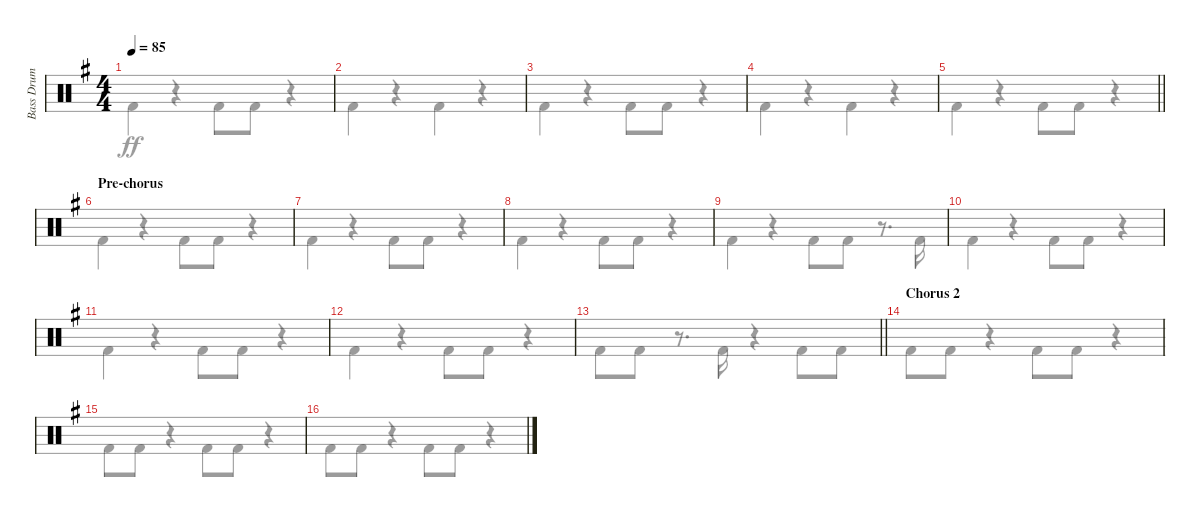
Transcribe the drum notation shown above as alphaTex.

\track ("Bass Drum" "Bass Drum") {instrument percussion}
\staff {score}
\articulation defaults
\voice
\ts (4 4)
\tempo 85
\clef neutral
\ks g
|
|
|
|
\barLineRight lightlight
|
\section ("" "Pre-chorus")
|
|
|
|
|
|
|
\barLineRight lightlight
|
\section ("" "Chorus 2")
|
|
\voice
\clef neutral
\ks g "Kick (hit) 2".4{dy ff}
r.4 "Kick (hit) 2".8 "Kick (hit) 2".8 r.4 |
"Kick (hit) 2".4 r.4 "Kick (hit) 2".4 r.4 |
"Kick (hit) 2".4 r.4 "Kick (hit) 2".8 "Kick (hit) 2".8 r.4 |
"Kick (hit) 2".4 r.4 "Kick (hit) 2".4 r.4 |
\barLineRight lightlight "Kick (hit) 2".4
r.4 "Kick (hit) 2".8 "Kick (hit) 2".8 r.4 |
"Kick (hit) 2".4 r.4 "Kick (hit) 2".8 "Kick (hit) 2".8 r.4 |
"Kick (hit) 2".4 r.4 "Kick (hit) 2".8 "Kick (hit) 2".8 r.4 |
"Kick (hit) 2".4 r.4 "Kick (hit) 2".8 "Kick (hit) 2".8 r.4 |
"Kick (hit) 2".4 r.4 "Kick (hit) 2".8 "Kick (hit) 2".8 r.8{d} "Kick (hit) 2".16 |
"Kick (hit) 2".4 r.4 "Kick (hit) 2".8 "Kick (hit) 2".8 r.4 |
"Kick (hit) 2".4 r.4 "Kick (hit) 2".8 "Kick (hit) 2".8 r.4 |
"Kick (hit) 2".4 r.4 "Kick (hit) 2".8 "Kick (hit) 2".8 r.4 |
\barLineRight lightlight "Kick (hit) 2".8 "Kick (hit) 2".8
r.8{d} "Kick (hit) 2".16 r.4 "Kick (hit) 2".8 "Kick (hit) 2".8 |
"Kick (hit) 2".8 "Kick (hit) 2".8 r.4 "Kick (hit) 2".8 "Kick (hit) 2".8 r.4 |
"Kick (hit) 2".8 "Kick (hit) 2".8 r.4 "Kick (hit) 2".8 "Kick (hit) 2".8 r.4 |
"Kick (hit) 2".8 "Kick (hit) 2".8 r.4 "Kick (hit) 2".8 "Kick (hit) 2".8 r.4
